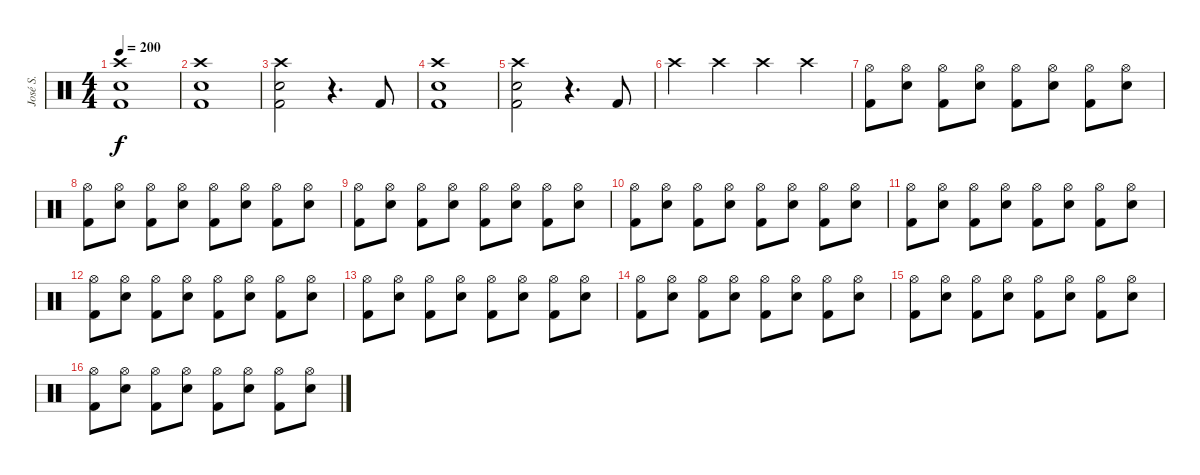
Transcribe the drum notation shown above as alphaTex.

\track ("José S." "José S.") {instrument percussion}
\staff {score}
\articulation defaults
\ts (4 4)
\tempo 200
\clef neutral
\ks c
("Crash high (hit)" "Electric Snare (hit)" "Kick (hit) 2").1{dy f} |
("Crash high (hit)" "Electric Snare (hit)" "Kick (hit) 2").1 |
("Crash high (hit)" "Electric Snare (hit)" "Kick (hit) 2").2 r.4{d} "Kick (hit) 2".8 |
("Crash high (hit)" "Electric Snare (hit)" "Kick (hit) 2").1 |
("Crash high (hit)" "Electric Snare (hit)" "Kick (hit) 2").2 r.4{d} "Kick (hit) 2".8 |
"Crash high (hit)".4 "Crash high (hit)".4 "Crash high (hit)".4 "Crash high (hit)".4 |
("Hi-Hat (open)" "Kick (hit) 2").8 ("Hi-Hat (open)" "Electric Snare (hit)").8 ("Hi-Hat (open)" "Kick (hit) 2").8 ("Hi-Hat (open)" "Electric Snare (hit)").8 ("Hi-Hat (open)" "Kick (hit) 2").8 ("Hi-Hat (open)" "Electric Snare (hit)").8 ("Hi-Hat (open)" "Kick (hit) 2").8 ("Hi-Hat (open)" "Electric Snare (hit)").8 |
("Hi-Hat (open)" "Kick (hit) 2").8 ("Hi-Hat (open)" "Electric Snare (hit)").8 ("Hi-Hat (open)" "Kick (hit) 2").8 ("Hi-Hat (open)" "Electric Snare (hit)").8 ("Hi-Hat (open)" "Kick (hit) 2").8 ("Hi-Hat (open)" "Electric Snare (hit)").8 ("Hi-Hat (open)" "Kick (hit) 2").8 ("Hi-Hat (open)" "Electric Snare (hit)").8 |
("Hi-Hat (open)" "Kick (hit) 2").8 ("Hi-Hat (open)" "Electric Snare (hit)").8 ("Hi-Hat (open)" "Kick (hit) 2").8 ("Hi-Hat (open)" "Electric Snare (hit)").8 ("Hi-Hat (open)" "Kick (hit) 2").8 ("Hi-Hat (open)" "Electric Snare (hit)").8 ("Hi-Hat (open)" "Kick (hit) 2").8 ("Hi-Hat (open)" "Electric Snare (hit)").8 |
("Hi-Hat (open)" "Kick (hit) 2").8 ("Hi-Hat (open)" "Electric Snare (hit)").8 ("Hi-Hat (open)" "Kick (hit) 2").8 ("Hi-Hat (open)" "Electric Snare (hit)").8 ("Hi-Hat (open)" "Kick (hit) 2").8 ("Hi-Hat (open)" "Electric Snare (hit)").8 ("Hi-Hat (open)" "Kick (hit) 2").8 ("Hi-Hat (open)" "Electric Snare (hit)").8 |
("Hi-Hat (open)" "Kick (hit) 2").8 ("Hi-Hat (open)" "Electric Snare (hit)").8 ("Hi-Hat (open)" "Kick (hit) 2").8 ("Hi-Hat (open)" "Electric Snare (hit)").8 ("Hi-Hat (open)" "Kick (hit) 2").8 ("Hi-Hat (open)" "Electric Snare (hit)").8 ("Hi-Hat (open)" "Kick (hit) 2").8 ("Hi-Hat (open)" "Electric Snare (hit)").8 |
("Hi-Hat (open)" "Kick (hit) 2").8 ("Hi-Hat (open)" "Electric Snare (hit)").8 ("Hi-Hat (open)" "Kick (hit) 2").8 ("Hi-Hat (open)" "Electric Snare (hit)").8 ("Hi-Hat (open)" "Kick (hit) 2").8 ("Hi-Hat (open)" "Electric Snare (hit)").8 ("Hi-Hat (open)" "Kick (hit) 2").8 ("Hi-Hat (open)" "Electric Snare (hit)").8 |
("Hi-Hat (open)" "Kick (hit) 2").8 ("Hi-Hat (open)" "Electric Snare (hit)").8 ("Hi-Hat (open)" "Kick (hit) 2").8 ("Hi-Hat (open)" "Electric Snare (hit)").8 ("Hi-Hat (open)" "Kick (hit) 2").8 ("Hi-Hat (open)" "Electric Snare (hit)").8 ("Hi-Hat (open)" "Kick (hit) 2").8 ("Hi-Hat (open)" "Electric Snare (hit)").8 |
("Hi-Hat (open)" "Kick (hit) 2").8 ("Hi-Hat (open)" "Electric Snare (hit)").8 ("Hi-Hat (open)" "Kick (hit) 2").8 ("Hi-Hat (open)" "Electric Snare (hit)").8 ("Hi-Hat (open)" "Kick (hit) 2").8 ("Hi-Hat (open)" "Electric Snare (hit)").8 ("Hi-Hat (open)" "Kick (hit) 2").8 ("Hi-Hat (open)" "Electric Snare (hit)").8 |
("Hi-Hat (open)" "Kick (hit) 2").8 ("Hi-Hat (open)" "Electric Snare (hit)").8 ("Hi-Hat (open)" "Kick (hit) 2").8 ("Hi-Hat (open)" "Electric Snare (hit)").8 ("Hi-Hat (open)" "Kick (hit) 2").8 ("Hi-Hat (open)" "Electric Snare (hit)").8 ("Hi-Hat (open)" "Kick (hit) 2").8 ("Hi-Hat (open)" "Electric Snare (hit)").8 |
("Hi-Hat (open)" "Kick (hit) 2").8 ("Hi-Hat (open)" "Electric Snare (hit)").8 ("Hi-Hat (open)" "Kick (hit) 2").8 ("Hi-Hat (open)" "Electric Snare (hit)").8 ("Hi-Hat (open)" "Kick (hit) 2").8 ("Hi-Hat (open)" "Electric Snare (hit)").8 ("Hi-Hat (open)" "Kick (hit) 2").8 ("Hi-Hat (open)" "Electric Snare (hit)").8
